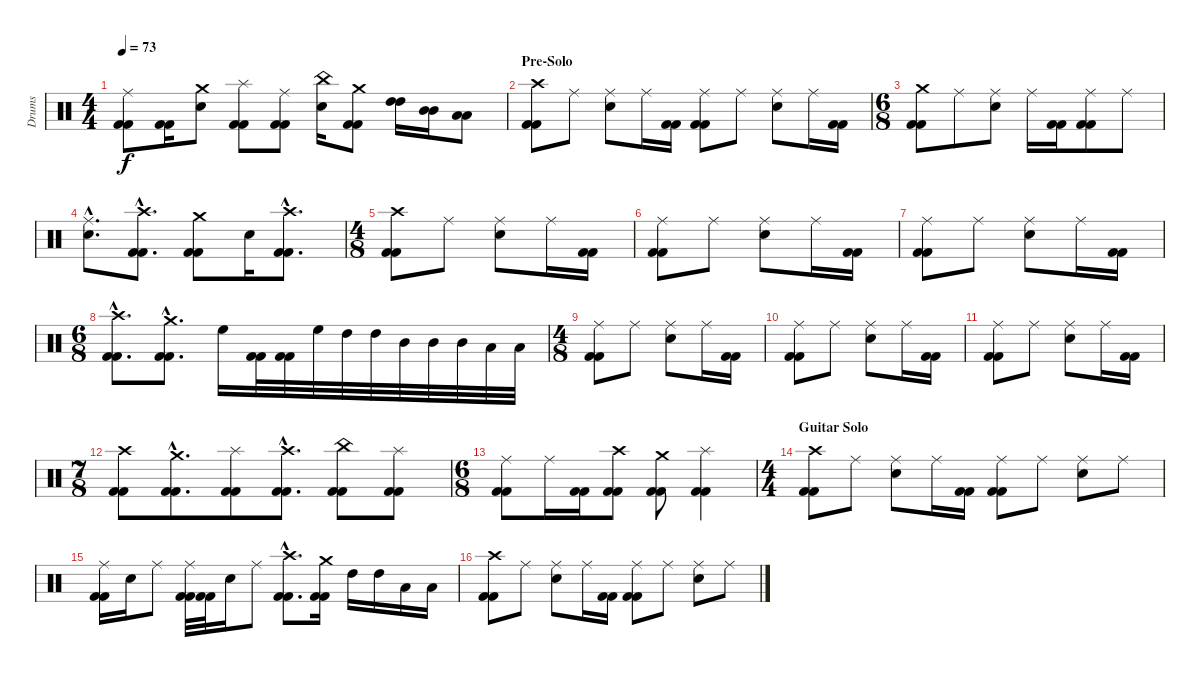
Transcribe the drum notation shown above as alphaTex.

\track ("Drums" "Drums") {instrument percussion}
\staff {score}
\articulation defaults
\ts (4 4)
\tempo 73
\clef neutral
\ks c
("Ride (middle)" "Kick (hit) 2" "Kick (hit) 2").8{dy f} ("Kick (hit) 2" "Kick (hit) 2").16 ("Crash medium (hit)" "Snare (hit) 2").8 ("Splash (hit)" "Kick (hit) 2" "Kick (hit) 2").8 ("Ride (middle)" "Kick (hit) 2" "Kick (hit) 2").8 ("China (hit)" "Snare (hit) 2").16 ("Crash medium (hit)" "Kick (hit) 2" "Kick (hit) 2").8 ("High Tom (hit)" "High Tom (hit)").16 ("Mid Tom (hit)" "Mid Tom (hit)").16 ("Low Tom (hit)" "Low Tom (hit)").8 |
\section ("" "Pre-Solo")
("Crash high (hit)" "Kick (hit) 2" "Kick (hit) 2").8 "Ride (middle)".8 ("Ride (middle)" "Snare (hit) 2").8 "Ride (middle)".16 ("Kick (hit) 2" "Kick (hit) 2").16 ("Ride (middle)" "Kick (hit) 2" "Kick (hit) 2").8 "Ride (middle)".8 ("Ride (middle)" "Snare (hit) 2").8 "Ride (middle)".16 ("Kick (hit) 2" "Kick (hit) 2").16 |
\ts (6 8)
("Crash medium (hit)" "Kick (hit) 2" "Kick (hit) 2").8 "Ride (middle)".8 ("Ride (middle)" "Snare (hit) 2").8 "Ride (middle)".16 ("Kick (hit) 2" "Kick (hit) 2").16 ("Ride (middle)" "Kick (hit) 2" "Kick (hit) 2").8 "Ride (middle)".8 |
("Ride (middle)"{hac} "Snare (hit) 2"{hac}).8{d} ("Crash high (hit)"{hac} "Kick (hit) 2"{hac} "Kick (hit) 2"{hac}).8{d} ("Crash medium (hit)" "Kick (hit) 2" "Kick (hit) 2").8 "Snare (hit) 2".16 ("Crash high (hit)"{hac} "Kick (hit) 2"{hac} "Kick (hit) 2"{hac}).8{d} |
\ts (4 8)
("Crash high (hit)" "Kick (hit) 2" "Kick (hit) 2").8 "Ride (middle)".8 ("Ride (middle)" "Snare (hit) 2").8 "Ride (middle)".16 ("Kick (hit) 2" "Kick (hit) 2").16 |
("Ride (middle)" "Kick (hit) 2" "Kick (hit) 2").8 "Ride (middle)".8 ("Ride (middle)" "Snare (hit) 2").8 "Ride (middle)".16 ("Kick (hit) 2" "Kick (hit) 2").16 |
("Ride (middle)" "Kick (hit) 2" "Kick (hit) 2").8 "Ride (middle)".8 ("Ride (middle)" "Snare (hit) 2").8 "Ride (middle)".16 ("Kick (hit) 2" "Kick (hit) 2").16 |
\ts (6 8)
("Crash high (hit)"{hac} "Kick (hit) 2"{hac} "Kick (hit) 2"{hac}).8{d} ("Crash medium (hit)"{hac} "Kick (hit) 2"{hac} "Kick (hit) 2"{hac}).8{d} "High Floor Tom (hit)".16 ("Kick (hit) 2" "Kick (hit) 2").32 ("Kick (hit) 2" "Kick (hit) 2").32 "High Floor Tom (hit)".32 "High Tom (hit)".32 "High Tom (hit)".32 "Mid Tom (hit)".32 "Mid Tom (hit)".32 "Mid Tom (hit)".32 "Low Tom (hit)".32 "Low Tom (hit)".32 |
\ts (4 8)
("Ride (middle)" "Kick (hit) 2" "Kick (hit) 2").8 "Ride (middle)".8 ("Ride (middle)" "Snare (hit) 2").8 "Ride (middle)".16 ("Kick (hit) 2" "Kick (hit) 2").16 |
("Ride (middle)" "Kick (hit) 2" "Kick (hit) 2").8 "Ride (middle)".8 ("Ride (middle)" "Snare (hit) 2").8 "Ride (middle)".16 ("Kick (hit) 2" "Kick (hit) 2").16 |
("Ride (middle)" "Kick (hit) 2" "Kick (hit) 2").8 "Ride (middle)".8 ("Ride (middle)" "Snare (hit) 2").8 "Ride (middle)".16 ("Kick (hit) 2" "Kick (hit) 2").16 |
\ts (7 8)
("Crash high (hit)" "Kick (hit) 2" "Kick (hit) 2").8 ("Crash medium (hit)"{hac} "Kick (hit) 2"{hac} "Kick (hit) 2"{hac}).8{d} ("Splash (hit)" "Kick (hit) 2" "Kick (hit) 2").8 ("Crash high (hit)"{hac} "Kick (hit) 2"{hac} "Kick (hit) 2"{hac}).8{d} ("China (hit)" "Kick (hit) 2" "Kick (hit) 2").8 ("Splash (hit)" "Kick (hit) 2" "Kick (hit) 2").8 |
\ts (6 8)
("Ride (middle)" "Kick (hit) 2" "Kick (hit) 2").8 "Ride (middle)".16 ("Kick (hit) 2" "Kick (hit) 2").16 ("Crash high (hit)" "Kick (hit) 2" "Kick (hit) 2").8 ("Crash medium (hit)" "Kick (hit) 2" "Kick (hit) 2").8 ("Splash (hit)" "Kick (hit) 2" "Kick (hit) 2").4 |
\ts (4 4)
\section ("" "Guitar Solo")
("Crash high (hit)" "Kick (hit) 2" "Kick (hit) 2").8 "Ride (middle)".8 ("Ride (middle)" "Snare (hit) 2").8 "Ride (middle)".16 ("Kick (hit) 2" "Kick (hit) 2").16 ("Ride (middle)" "Kick (hit) 2" "Kick (hit) 2").8 "Ride (middle)".8 ("Ride (middle)" "Snare (hit) 2").8 "Ride (middle)".8 |
("Ride (middle)" "Kick (hit) 2" "Kick (hit) 2").16 "Snare (hit) 2".16 "Ride (middle)".8 ("Ride (middle)" "Kick (hit) 2" "Kick (hit) 2").32 ("Kick (hit) 2" "Kick (hit) 2").32 "Snare (hit) 2".16 "Ride (middle)".8 ("Crash high (hit)"{hac} "Kick (hit) 2"{hac} "Kick (hit) 2"{hac}).8{d} ("Crash medium (hit)" "Kick (hit) 2" "Kick (hit) 2").16 "High Tom (hit)".16 "High Tom (hit)".16 "Low Tom (hit)".16 "Low Tom (hit)".16 |
("Crash high (hit)" "Kick (hit) 2" "Kick (hit) 2").8 "Ride (middle)".8 ("Ride (middle)" "Snare (hit) 2").8 "Ride (middle)".16 ("Kick (hit) 2" "Kick (hit) 2").16 ("Ride (middle)" "Kick (hit) 2" "Kick (hit) 2").8 "Ride (middle)".8 ("Ride (middle)" "Snare (hit) 2").8 "Ride (middle)".8
